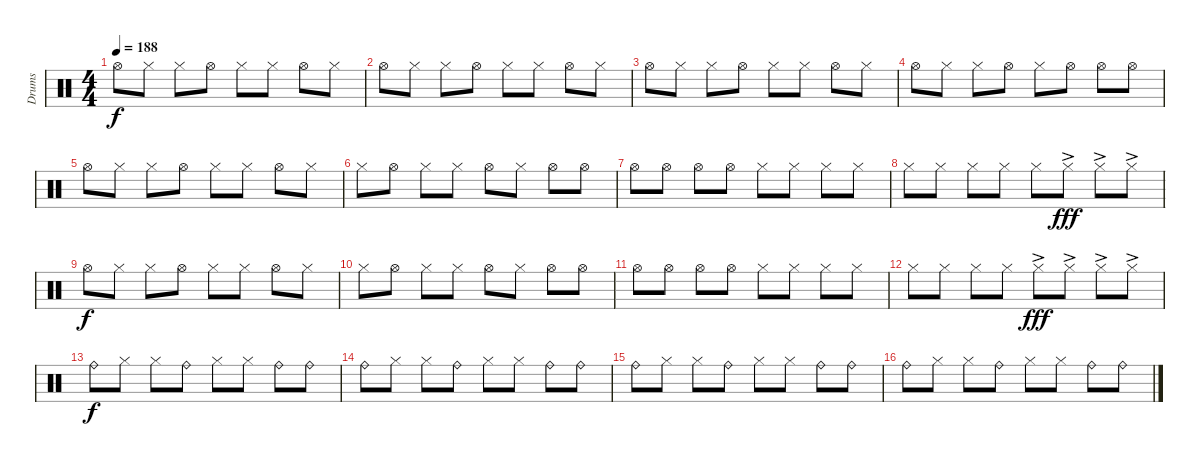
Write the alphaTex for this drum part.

\track ("Drums" "Drums") {instrument percussion}
\staff {score}
\articulation defaults
\ts (4 4)
\tempo 188
\clef neutral
\ks c "Hi-Hat (open)".8{dy f} "Hi-Hat (closed)".8 "Hi-Hat (closed)".8 "Hi-Hat (open)".8 "Hi-Hat (closed)".8 "Hi-Hat (closed)".8 "Hi-Hat (open)".8 "Hi-Hat (closed)".8
|
"Hi-Hat (open)".8 "Hi-Hat (closed)".8 "Hi-Hat (closed)".8 "Hi-Hat (open)".8 "Hi-Hat (closed)".8 "Hi-Hat (closed)".8 "Hi-Hat (open)".8 "Hi-Hat (closed)".8 |
"Hi-Hat (open)".8 "Hi-Hat (closed)".8 "Hi-Hat (closed)".8 "Hi-Hat (open)".8 "Hi-Hat (closed)".8 "Hi-Hat (closed)".8 "Hi-Hat (open)".8 "Hi-Hat (closed)".8 |
"Hi-Hat (open)".8 "Hi-Hat (closed)".8 "Hi-Hat (closed)".8 "Hi-Hat (open)".8 "Hi-Hat (closed)".8 "Hi-Hat (open)".8 "Hi-Hat (open)".8 "Hi-Hat (open)".8 |
"Hi-Hat (open)".8 "Hi-Hat (closed)".8 "Hi-Hat (closed)".8 "Hi-Hat (open)".8 "Hi-Hat (closed)".8 "Hi-Hat (closed)".8 "Hi-Hat (open)".8 "Hi-Hat (closed)".8 |
"Hi-Hat (closed)".8 "Hi-Hat (open)".8 "Hi-Hat (closed)".8 "Hi-Hat (closed)".8 "Hi-Hat (open)".8 "Hi-Hat (closed)".8 "Hi-Hat (open)".8 "Hi-Hat (open)".8 |
"Hi-Hat (open)".8 "Hi-Hat (open)".8 "Hi-Hat (open)".8 "Hi-Hat (open)".8 "Hi-Hat (closed)".8 "Hi-Hat (closed)".8 "Hi-Hat (closed)".8 "Hi-Hat (closed)".8 |
"Hi-Hat (closed)".8 "Hi-Hat (closed)".8 "Hi-Hat (closed)".8 "Hi-Hat (closed)".8 "Hi-Hat (closed)".8 "Hi-Hat (closed)"{ac}.8{dy fff} "Hi-Hat (closed)"{ac}.8 "Hi-Hat (closed)"{ac}.8 |
"Hi-Hat (open)".8{dy f} "Hi-Hat (closed)".8 "Hi-Hat (closed)".8 "Hi-Hat (open)".8 "Hi-Hat (closed)".8 "Hi-Hat (closed)".8 "Hi-Hat (open)".8 "Hi-Hat (closed)".8 |
"Hi-Hat (closed)".8 "Hi-Hat (open)".8 "Hi-Hat (closed)".8 "Hi-Hat (closed)".8 "Hi-Hat (open)".8 "Hi-Hat (closed)".8 "Hi-Hat (open)".8 "Hi-Hat (open)".8 |
"Hi-Hat (open)".8 "Hi-Hat (open)".8 "Hi-Hat (open)".8 "Hi-Hat (open)".8 "Hi-Hat (closed)".8 "Hi-Hat (closed)".8 "Hi-Hat (closed)".8 "Hi-Hat (closed)".8 |
"Hi-Hat (closed)".8 "Hi-Hat (closed)".8 "Hi-Hat (closed)".8 "Hi-Hat (closed)".8 "Hi-Hat (closed)"{ac}.8{dy fff} "Hi-Hat (closed)"{ac}.8 "Hi-Hat (closed)"{ac}.8 "Hi-Hat (closed)"{ac}.8 |
"Ride (bell)".8{dy f} "Hi-Hat (closed)".8 "Hi-Hat (closed)".8 "Ride (bell)".8 "Hi-Hat (closed)".8 "Hi-Hat (closed)".8 "Ride (bell)".8 "Ride (bell)".8 |
"Ride (bell)".8 "Hi-Hat (closed)".8 "Hi-Hat (closed)".8 "Ride (bell)".8 "Hi-Hat (closed)".8 "Hi-Hat (closed)".8 "Ride (bell)".8 "Ride (bell)".8 |
"Ride (bell)".8 "Hi-Hat (closed)".8 "Hi-Hat (closed)".8 "Ride (bell)".8 "Hi-Hat (closed)".8 "Hi-Hat (closed)".8 "Ride (bell)".8 "Ride (bell)".8 |
"Ride (bell)".8 "Hi-Hat (closed)".8 "Hi-Hat (closed)".8 "Ride (bell)".8 "Hi-Hat (closed)".8 "Hi-Hat (closed)".8 "Ride (bell)".8 "Ride (bell)".8
